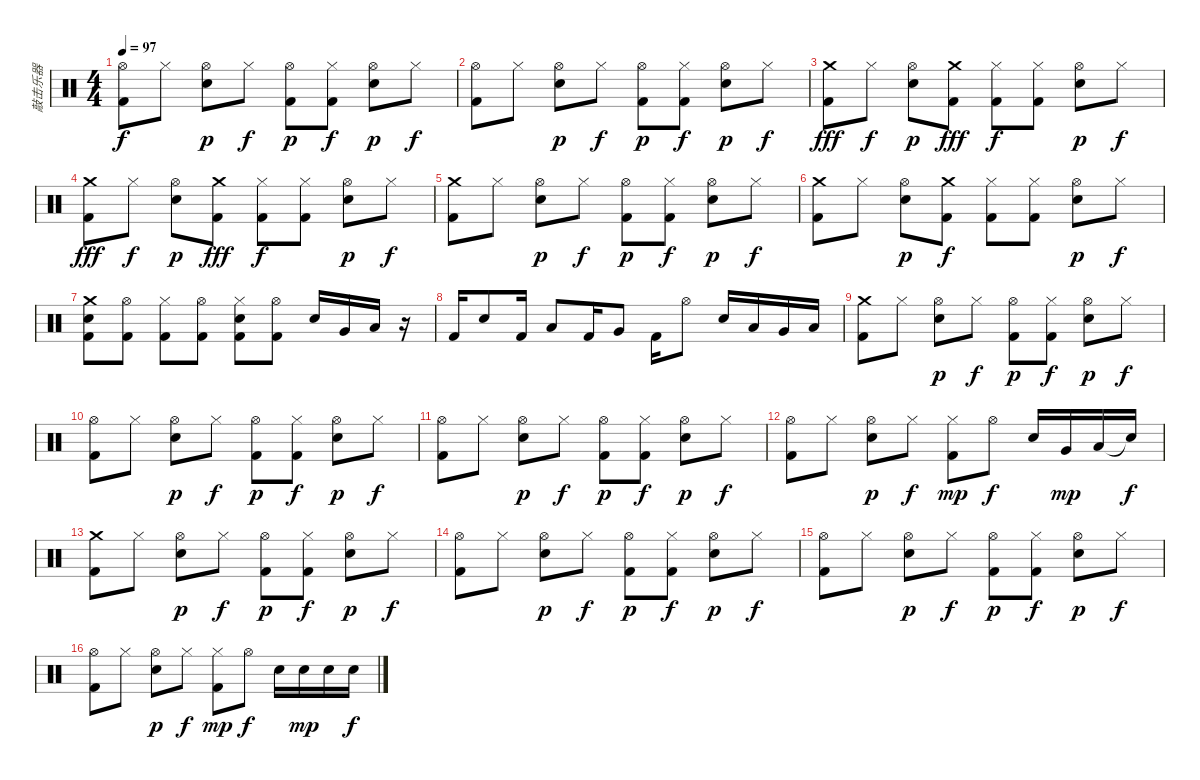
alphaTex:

\track ("敲击乐器" "敲击乐器") {instrument percussion}
\staff {score}
\articulation defaults
\ts (4 4)
\tempo 97
\clef neutral
\ks c
("Hi-Hat (open)" "Kick (hit) 2").8{dy f} "Hi-Hat (closed)".8 ("Hi-Hat (open)" "Snare (hit) 2").8{dy p} "Hi-Hat (closed)".8{dy f} ("Hi-Hat (open)" "Kick (hit) 2").8{dy p} ("Hi-Hat (closed)" "Kick (hit) 2").8{dy f} ("Hi-Hat (open)" "Snare (hit) 2").8{dy p} "Hi-Hat (closed)".8{dy f} |
("Hi-Hat (open)" "Kick (hit) 2").8 "Hi-Hat (closed)".8 ("Hi-Hat (open)" "Snare (hit) 2").8{dy p} "Hi-Hat (closed)".8{dy f} ("Hi-Hat (open)" "Kick (hit) 2").8{dy p} ("Hi-Hat (closed)" "Kick (hit) 2").8{dy f} ("Hi-Hat (open)" "Snare (hit) 2").8{dy p} "Hi-Hat (closed)".8{dy f} |
("Crash medium (hit)" "Kick (hit) 2").8{dy fff} "Hi-Hat (closed)".8{dy f} ("Hi-Hat (open)" "Snare (hit) 2").8{dy p} ("Crash medium (hit)" "Kick (hit) 2").8{dy fff} ("Hi-Hat (closed)" "Kick (hit) 2").8{dy f} ("Hi-Hat (closed)" "Kick (hit) 2").8 ("Hi-Hat (open)" "Snare (hit) 2").8{dy p} "Hi-Hat (closed)".8{dy f} |
("Crash medium (hit)" "Kick (hit) 2").8{dy fff} "Hi-Hat (closed)".8{dy f} ("Hi-Hat (open)" "Snare (hit) 2").8{dy p} ("Crash medium (hit)" "Kick (hit) 2").8{dy fff} ("Hi-Hat (closed)" "Kick (hit) 2").8{dy f} ("Hi-Hat (closed)" "Kick (hit) 2").8 ("Hi-Hat (open)" "Snare (hit) 2").8{dy p} "Hi-Hat (closed)".8{dy f} |
("Crash medium (hit)" "Kick (hit) 2").8 "Hi-Hat (closed)".8 ("Hi-Hat (open)" "Snare (hit) 2").8{dy p} "Hi-Hat (closed)".8{dy f} ("Hi-Hat (open)" "Kick (hit) 2").8{dy p} ("Hi-Hat (closed)" "Kick (hit) 2").8{dy f} ("Hi-Hat (open)" "Snare (hit) 2").8{dy p} "Hi-Hat (closed)".8{dy f} |
("Crash medium (hit)" "Kick (hit) 2").8 "Hi-Hat (closed)".8 ("Hi-Hat (open)" "Snare (hit) 2").8{dy p} ("Crash medium (hit)" "Kick (hit) 2").8{dy f} ("Hi-Hat (closed)" "Kick (hit) 2").8 ("Hi-Hat (closed)" "Kick (hit) 2").8 ("Hi-Hat (open)" "Snare (hit) 2").8{dy p} "Hi-Hat (closed)".8{dy f} |
("Crash medium (hit)" "Snare (hit) 2" "Kick (hit) 2").8 ("Hi-Hat (open)" "Kick (hit) 2").8 ("Hi-Hat (closed)" "Kick (hit) 2").8 ("Hi-Hat (open)" "Kick (hit) 2").8 ("Hi-Hat (closed)" "Snare (hit) 2" "Kick (hit) 2").8 ("Hi-Hat (open)" "Kick (hit) 2").8 "Snare (hit) 2".16 "Very Low Tom (hit)".16 "Low Floor Tom (hit)".16 r.16 |
"Kick (hit) 2".16 "Snare (hit) 2".8 "Kick (hit) 2".16 "Low Tom (hit)".8 "Kick (hit) 2".16 "Very Low Tom (hit)".8 "Kick (hit) 2".16 "Hi-Hat (open)".8 "Snare (hit) 2".16 "Low Tom (hit)".16 "Very Low Tom (hit)".16 "Low Floor Tom (hit)".16 |
("Crash medium (hit)" "Kick (hit) 2").8 "Hi-Hat (closed)".8 ("Hi-Hat (open)" "Snare (hit) 2").8{dy p} "Hi-Hat (closed)".8{dy f} ("Hi-Hat (open)" "Kick (hit) 2").8{dy p} ("Hi-Hat (closed)" "Kick (hit) 2").8{dy f} ("Hi-Hat (open)" "Snare (hit) 2").8{dy p} "Hi-Hat (closed)".8{dy f} |
("Hi-Hat (open)" "Kick (hit) 2").8 "Hi-Hat (closed)".8 ("Hi-Hat (open)" "Snare (hit) 2").8{dy p} "Hi-Hat (closed)".8{dy f} ("Hi-Hat (open)" "Kick (hit) 2").8{dy p} ("Hi-Hat (closed)" "Kick (hit) 2").8{dy f} ("Hi-Hat (open)" "Snare (hit) 2").8{dy p} "Hi-Hat (closed)".8{dy f} |
("Hi-Hat (open)" "Kick (hit) 2").8 "Hi-Hat (closed)".8 ("Hi-Hat (open)" "Snare (hit) 2").8{dy p} "Hi-Hat (closed)".8{dy f} ("Hi-Hat (open)" "Kick (hit) 2").8{dy p} ("Hi-Hat (closed)" "Kick (hit) 2").8{dy f} ("Hi-Hat (open)" "Snare (hit) 2").8{dy p} "Hi-Hat (closed)".8{dy f} |
("Hi-Hat (open)" "Kick (hit) 2").8 "Hi-Hat (closed)".8 ("Hi-Hat (open)" "Snare (hit) 2").8{dy p} "Hi-Hat (closed)".8{dy f} ("Hi-Hat (closed)" "Kick (hit) 2").8{dy mp} "Hi-Hat (open)".8{dy f} "Snare (hit) 2".16 "Very Low Tom (hit)".16{dy mp} "Low Floor Tom (hit)".16 "Snare (hit)"{t}.16{dy f} |
("Crash medium (hit)" "Kick (hit) 2").8 "Hi-Hat (closed)".8 ("Hi-Hat (open)" "Snare (hit) 2").8{dy p} "Hi-Hat (closed)".8{dy f} ("Hi-Hat (open)" "Kick (hit) 2").8{dy p} ("Hi-Hat (closed)" "Kick (hit) 2").8{dy f} ("Hi-Hat (open)" "Snare (hit) 2").8{dy p} "Hi-Hat (closed)".8{dy f} |
("Hi-Hat (open)" "Kick (hit) 2").8 "Hi-Hat (closed)".8 ("Hi-Hat (open)" "Snare (hit) 2").8{dy p} "Hi-Hat (closed)".8{dy f} ("Hi-Hat (open)" "Kick (hit) 2").8{dy p} ("Hi-Hat (closed)" "Kick (hit) 2").8{dy f} ("Hi-Hat (open)" "Snare (hit) 2").8{dy p} "Hi-Hat (closed)".8{dy f} |
("Hi-Hat (open)" "Kick (hit) 2").8 "Hi-Hat (closed)".8 ("Hi-Hat (open)" "Snare (hit) 2").8{dy p} "Hi-Hat (closed)".8{dy f} ("Hi-Hat (open)" "Kick (hit) 2").8{dy p} ("Hi-Hat (closed)" "Kick (hit) 2").8{dy f} ("Hi-Hat (open)" "Snare (hit) 2").8{dy p} "Hi-Hat (closed)".8{dy f} |
("Hi-Hat (open)" "Kick (hit) 2").8 "Hi-Hat (closed)".8 ("Hi-Hat (open)" "Snare (hit) 2").8{dy p} "Hi-Hat (closed)".8{dy f} ("Hi-Hat (closed)" "Kick (hit) 2").8{dy mp} "Hi-Hat (open)".8{dy f} "Snare (hit) 2".16 "Snare (hit) 2".16{dy mp} "Snare (hit) 2".16 "Snare (hit) 2".16{dy f}
